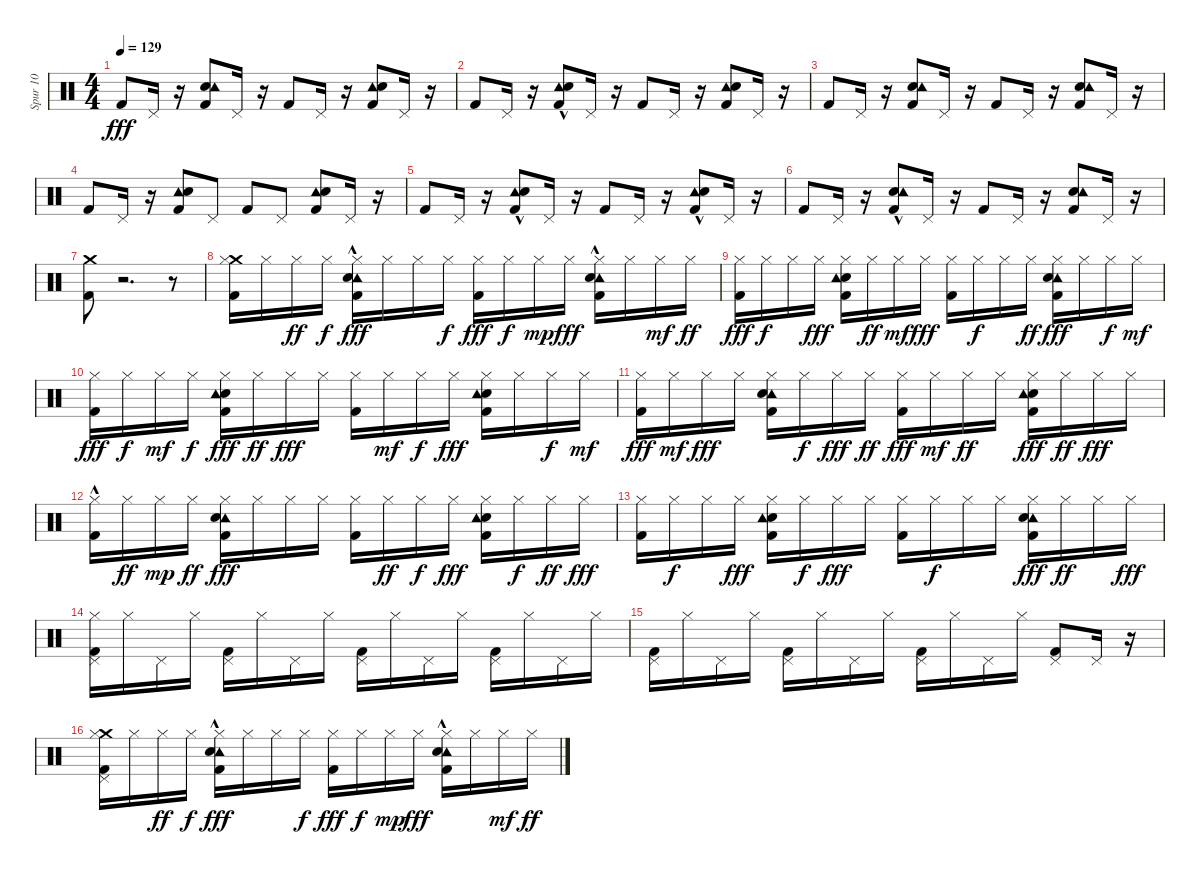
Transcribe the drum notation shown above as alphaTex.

\track ("Spur 10" "Spur 10") {instrument percussion}
\staff {score}
\articulation defaults
\ts (4 4)
\tempo 129
\clef neutral
\ks c "Kick (hit) 2".8{dy fff} "Pedal Hi-Hat (hit)".16
r.16 ("Kick (hit) 2" "Electric Snare (hit)" "Tambourine (hit)").8 "Pedal Hi-Hat (hit)".16 r.16 "Kick (hit) 2".8 "Pedal Hi-Hat (hit)".16 r.16 ("Tambourine (hit)" "Electric Snare (hit)" "Kick (hit) 2").8 "Pedal Hi-Hat (hit)".16 r.16 |
"Kick (hit) 2".8 "Pedal Hi-Hat (hit)".16 r.16 ("Tambourine (hit)" "Electric Snare (hit)"{hac} "Kick (hit) 2").8 "Pedal Hi-Hat (hit)".16 r.16 "Kick (hit) 2".8 "Pedal Hi-Hat (hit)".16 r.16 ("Tambourine (hit)" "Electric Snare (hit)" "Kick (hit) 2").8 "Pedal Hi-Hat (hit)".16 r.16 |
"Kick (hit) 2".8 "Pedal Hi-Hat (hit)".16 r.16 ("Electric Snare (hit)" "Kick (hit) 2" "Tambourine (hit)").8 "Pedal Hi-Hat (hit)".16 r.16 "Kick (hit) 2".8 "Pedal Hi-Hat (hit)".16 r.16 ("Electric Snare (hit)" "Kick (hit) 2" "Tambourine (hit)").8 "Pedal Hi-Hat (hit)".16 r.16 |
"Kick (hit) 2".8 "Pedal Hi-Hat (hit)".16 r.16 ("Tambourine (hit)" "Kick (hit) 2" "Electric Snare (hit)").8 "Pedal Hi-Hat (hit)".8 "Kick (hit) 2".8 "Pedal Hi-Hat (hit)".8 ("Kick (hit) 2" "Tambourine (hit)" "Electric Snare (hit)").8 "Pedal Hi-Hat (hit)".16 r.16 |
"Kick (hit) 2".8 "Pedal Hi-Hat (hit)".16 r.16 ("Kick (hit) 2" "Tambourine (hit)" "Electric Snare (hit)"{hac}).8 "Pedal Hi-Hat (hit)".16 r.16 "Kick (hit) 2".8 "Pedal Hi-Hat (hit)".16 r.16 ("Tambourine (hit)" "Electric Snare (hit)"{hac} "Kick (hit) 2").8 "Pedal Hi-Hat (hit)".16 r.16 |
"Kick (hit) 2".8 "Pedal Hi-Hat (hit)".16 r.16 ("Electric Snare (hit)"{hac} "Tambourine (hit)" "Kick (hit) 2").8 "Pedal Hi-Hat (hit)".16 r.16 "Kick (hit) 2".8 "Pedal Hi-Hat (hit)".16 r.16 ("Kick (hit) 2" "Electric Snare (hit)" "Tambourine (hit)").8 "Pedal Hi-Hat (hit)".16 r.16 |
("Kick (hit) 2" "Crash medium (hit)").8 r.2{d} r.8 |
("Crash medium (hit)" "Kick (hit) 2" "Hi-Hat (closed)").16 "Hi-Hat (closed)".16 "Hi-Hat (closed)".16{dy ff} "Hi-Hat (closed)".16{dy f} ("Tambourine (hit)" "Kick (hit) 2"{hac} "Hi-Hat (closed)" "Electric Snare (hit)").16{dy fff} "Hi-Hat (closed)".16 "Hi-Hat (closed)".16 "Hi-Hat (closed)".16{dy f} ("Kick (hit) 2" "Hi-Hat (closed)").16{dy fff} "Hi-Hat (closed)".16{dy f} "Hi-Hat (closed)".16{dy mp} "Hi-Hat (closed)".16{dy fff} ("Tambourine (hit)" "Electric Snare (hit)"{hac} "Hi-Hat (closed)" "Kick (hit) 2").16 "Hi-Hat (closed)".16 "Hi-Hat (closed)".16{dy mf} "Hi-Hat (closed)".16{dy ff} |
("Hi-Hat (closed)" "Kick (hit) 2").16{dy fff} "Hi-Hat (closed)".16{dy f} "Hi-Hat (closed)".16 "Hi-Hat (closed)".16{dy fff} ("Hi-Hat (closed)" "Electric Snare (hit)" "Kick (hit) 2" "Tambourine (hit)").16 "Hi-Hat (closed)".16{dy ff} "Hi-Hat (closed)".16{dy mf} "Hi-Hat (closed)".16{dy fff} ("Hi-Hat (closed)" "Kick (hit) 2").16 "Hi-Hat (closed)".16{dy f} "Hi-Hat (closed)".16 "Hi-Hat (closed)".16{dy ff} ("Hi-Hat (closed)" "Tambourine (hit)" "Kick (hit) 2" "Electric Snare (hit)").16{dy fff} "Hi-Hat (closed)".16 "Hi-Hat (closed)".16{dy f} "Hi-Hat (closed)".16{dy mf} |
("Hi-Hat (closed)" "Kick (hit) 2").16{dy fff} "Hi-Hat (closed)".16{dy f} "Hi-Hat (closed)".16{dy mf} "Hi-Hat (closed)".16{dy f} ("Kick (hit) 2" "Electric Snare (hit)" "Tambourine (hit)" "Hi-Hat (closed)").16{dy fff} "Hi-Hat (closed)".16{dy ff} "Hi-Hat (closed)".16{dy fff} "Hi-Hat (closed)".16 ("Kick (hit) 2" "Hi-Hat (closed)").16 "Hi-Hat (closed)".16{dy mf} "Hi-Hat (closed)".16{dy f} "Hi-Hat (closed)".16{dy fff} ("Electric Snare (hit)" "Kick (hit) 2" "Hi-Hat (closed)" "Tambourine (hit)").16 "Hi-Hat (closed)".16 "Hi-Hat (closed)".16{dy f} "Hi-Hat (closed)".16{dy mf} |
("Hi-Hat (closed)" "Kick (hit) 2").16{dy fff} "Hi-Hat (closed)".16{dy mf} "Hi-Hat (closed)".16{dy fff} "Hi-Hat (closed)".16 ("Hi-Hat (closed)" "Tambourine (hit)" "Electric Snare (hit)" "Kick (hit) 2").16 "Hi-Hat (closed)".16{dy f} "Hi-Hat (closed)".16{dy fff} "Hi-Hat (closed)".16{dy ff} ("Kick (hit) 2" "Hi-Hat (closed)").16{dy fff} "Hi-Hat (closed)".16{dy mf} "Hi-Hat (closed)".16{dy ff} "Hi-Hat (closed)".16 ("Kick (hit) 2" "Electric Snare (hit)" "Tambourine (hit)" "Hi-Hat (closed)").16{dy fff} "Hi-Hat (closed)".16{dy ff} "Hi-Hat (closed)".16{dy fff} "Hi-Hat (closed)".16 |
("Hi-Hat (closed)" "Kick (hit) 2"{hac}).16 "Hi-Hat (closed)".16{dy ff} "Hi-Hat (closed)".16{dy mp} "Hi-Hat (closed)".16{dy ff} ("Kick (hit) 2" "Hi-Hat (closed)" "Tambourine (hit)" "Electric Snare (hit)").16{dy fff} "Hi-Hat (closed)".16 "Hi-Hat (closed)".16 "Hi-Hat (closed)".16 ("Kick (hit) 2" "Hi-Hat (closed)").16 "Hi-Hat (closed)".16{dy ff} "Hi-Hat (closed)".16{dy f} "Hi-Hat (closed)".16{dy fff} ("Hi-Hat (closed)" "Electric Snare (hit)" "Tambourine (hit)" "Kick (hit) 2").16 "Hi-Hat (closed)".16{dy f} "Hi-Hat (closed)".16{dy ff} "Hi-Hat (closed)".16{dy fff} |
("Hi-Hat (closed)" "Kick (hit) 2").16 "Hi-Hat (closed)".16{dy f} "Hi-Hat (closed)".16 "Hi-Hat (closed)".16{dy fff} ("Kick (hit) 2" "Electric Snare (hit)" "Hi-Hat (closed)" "Tambourine (hit)").16 "Hi-Hat (closed)".16{dy f} "Hi-Hat (closed)".16{dy fff} "Hi-Hat (closed)".16 ("Hi-Hat (closed)" "Kick (hit) 2").16 "Hi-Hat (closed)".16{dy f} "Hi-Hat (closed)".16 "Hi-Hat (closed)".16 ("Tambourine (hit)" "Electric Snare (hit)" "Hi-Hat (closed)" "Kick (hit) 2").16{dy fff} "Hi-Hat (closed)".16{dy ff} "Hi-Hat (closed)".16 "Hi-Hat (closed)".16{dy fff} |
("Hi-Hat (closed)" "Pedal Hi-Hat (hit)" "Kick (hit) 2").16 "Hi-Hat (closed)".16 "Pedal Hi-Hat (hit)".16 "Hi-Hat (closed)".16 ("Pedal Hi-Hat (hit)" "Kick (hit) 2").16 "Hi-Hat (closed)".16 "Pedal Hi-Hat (hit)".16 "Hi-Hat (closed)".16 ("Kick (hit) 2" "Pedal Hi-Hat (hit)").16 "Hi-Hat (closed)".16 "Pedal Hi-Hat (hit)".16 "Hi-Hat (closed)".16 ("Pedal Hi-Hat (hit)" "Kick (hit) 2").16 "Hi-Hat (closed)".16 "Pedal Hi-Hat (hit)".16 "Hi-Hat (closed)".16 |
("Kick (hit) 2" "Pedal Hi-Hat (hit)").16 "Hi-Hat (closed)".16 "Pedal Hi-Hat (hit)".16 "Hi-Hat (closed)".16 ("Pedal Hi-Hat (hit)" "Kick (hit) 2").16 "Hi-Hat (closed)".16 "Pedal Hi-Hat (hit)".16 "Hi-Hat (closed)".16 ("Pedal Hi-Hat (hit)" "Kick (hit) 2").16 "Hi-Hat (closed)".16 "Pedal Hi-Hat (hit)".16 "Hi-Hat (closed)".16 ("Pedal Hi-Hat (hit)" "Kick (hit) 2").8 "Pedal Hi-Hat (hit)".16 r.16 |
("Crash medium (hit)" "Kick (hit) 2" "Hi-Hat (closed)" "Pedal Hi-Hat (hit)").16 "Hi-Hat (closed)".16 "Hi-Hat (closed)".16{dy ff} "Hi-Hat (closed)".16{dy f} ("Hi-Hat (closed)" "Tambourine (hit)" "Kick (hit) 2"{hac} "Electric Snare (hit)").16{dy fff} "Hi-Hat (closed)".16 "Hi-Hat (closed)".16 "Hi-Hat (closed)".16{dy f} ("Kick (hit) 2" "Hi-Hat (closed)").16{dy fff} "Hi-Hat (closed)".16{dy f} "Hi-Hat (closed)".16{dy mp} "Hi-Hat (closed)".16{dy fff} ("Kick (hit) 2" "Tambourine (hit)" "Hi-Hat (closed)" "Electric Snare (hit)"{hac}).16 "Hi-Hat (closed)".16 "Hi-Hat (closed)".16{dy mf} "Hi-Hat (closed)".16{dy ff}
